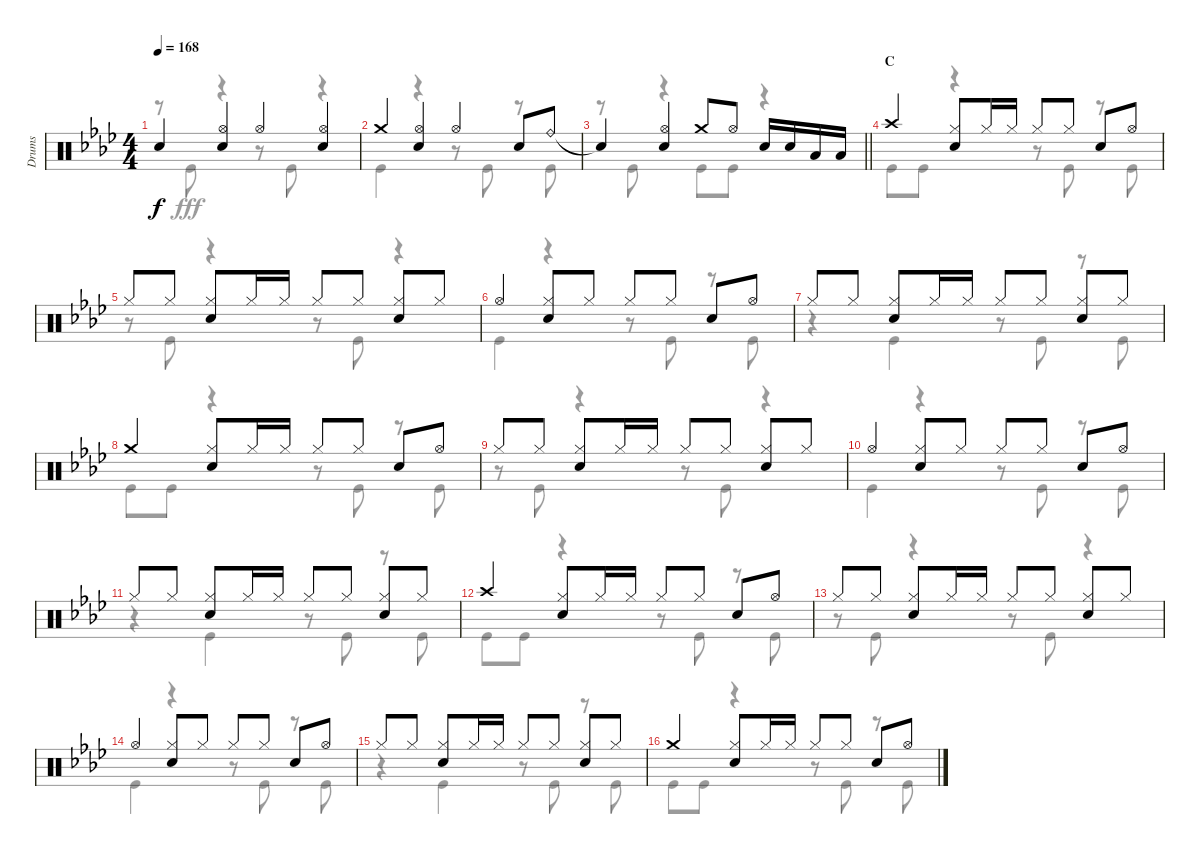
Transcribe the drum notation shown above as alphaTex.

\track ("Drums" "Drums") {instrument percussion}
\staff {score}
\articulation defaults
\voice
\ts (4 4)
\tempo 168
\clef neutral
\ks ab "Snare (hit)"{t}.4{dy f}
("Hi-Hat (open)" "Snare (hit) 2").4 "Hi-Hat (open)".4 ("Hi-Hat (open)" "Snare (hit) 2").4 |
"Crash medium (hit)".4 ("Hi-Hat (open)" "Snare (hit) 2").4 "Hi-Hat (open)".4 "Snare (hit) 2".8 "Ride (bell)".8 |
\barLineRight lightlight "Snare (hit)"{t}.4
("Hi-Hat (open)" "Snare (hit) 2").4 "Crash medium (hit)".8 "Hi-Hat (open)".8 "Snare (hit) 2".16 "Snare (hit) 2".16 "Low Tom (hit)".16 "Low Tom (hit)".16 |
\section ("" "C")
"Crash high (hit)".4 ("Hi-Hat (closed)" "Snare (hit) 2").8 "Hi-Hat (closed)".16 "Hi-Hat (closed)".16 "Hi-Hat (closed)".8 "Hi-Hat (closed)".8 "Snare (hit) 2".8 "Hi-Hat (open)".8 |
"Hi-Hat (closed)".8 "Hi-Hat (closed)".8 ("Hi-Hat (closed)" "Snare (hit) 2").8 "Hi-Hat (closed)".16 "Hi-Hat (closed)".16 "Hi-Hat (closed)".8 "Hi-Hat (closed)".8 ("Hi-Hat (closed)" "Snare (hit) 2").8 "Hi-Hat (closed)".8 |
"Hi-Hat (open)".4 ("Hi-Hat (closed)" "Snare (hit) 2").8 "Hi-Hat (closed)".8 "Hi-Hat (closed)".8 "Hi-Hat (closed)".8 "Snare (hit) 2".8 "Hi-Hat (open)".8 |
"Hi-Hat (closed)".8 "Hi-Hat (closed)".8 ("Hi-Hat (closed)" "Snare (hit) 2").8 "Hi-Hat (closed)".16 "Hi-Hat (closed)".16 "Hi-Hat (closed)".8 "Hi-Hat (closed)".8 ("Hi-Hat (closed)" "Snare (hit) 2").8 "Hi-Hat (closed)".8 |
"Crash medium (hit)".4 ("Hi-Hat (closed)" "Snare (hit) 2").8 "Hi-Hat (closed)".16 "Hi-Hat (closed)".16 "Hi-Hat (closed)".8 "Hi-Hat (closed)".8 "Snare (hit) 2".8 "Hi-Hat (open)".8 |
"Hi-Hat (closed)".8 "Hi-Hat (closed)".8 ("Hi-Hat (closed)" "Snare (hit) 2").8 "Hi-Hat (closed)".16 "Hi-Hat (closed)".16 "Hi-Hat (closed)".8 "Hi-Hat (closed)".8 ("Hi-Hat (closed)" "Snare (hit) 2").8 "Hi-Hat (closed)".8 |
"Hi-Hat (open)".4 ("Hi-Hat (closed)" "Snare (hit) 2").8 "Hi-Hat (closed)".8 "Hi-Hat (closed)".8 "Hi-Hat (closed)".8 "Snare (hit) 2".8 "Hi-Hat (open)".8 |
"Hi-Hat (closed)".8 "Hi-Hat (closed)".8 ("Hi-Hat (closed)" "Snare (hit) 2").8 "Hi-Hat (closed)".16 "Hi-Hat (closed)".16 "Hi-Hat (closed)".8 "Hi-Hat (closed)".8 ("Hi-Hat (closed)" "Snare (hit) 2").8 "Hi-Hat (closed)".8 |
"Crash high (hit)".4 ("Hi-Hat (closed)" "Snare (hit) 2").8 "Hi-Hat (closed)".16 "Hi-Hat (closed)".16 "Hi-Hat (closed)".8 "Hi-Hat (closed)".8 "Snare (hit) 2".8 "Hi-Hat (open)".8 |
"Hi-Hat (closed)".8 "Hi-Hat (closed)".8 ("Hi-Hat (closed)" "Snare (hit) 2").8 "Hi-Hat (closed)".16 "Hi-Hat (closed)".16 "Hi-Hat (closed)".8 "Hi-Hat (closed)".8 ("Hi-Hat (closed)" "Snare (hit) 2").8 "Hi-Hat (closed)".8 |
"Hi-Hat (open)".4 ("Hi-Hat (closed)" "Snare (hit) 2").8 "Hi-Hat (closed)".8 "Hi-Hat (closed)".8 "Hi-Hat (closed)".8 "Snare (hit) 2".8 "Hi-Hat (open)".8 |
"Hi-Hat (closed)".8 "Hi-Hat (closed)".8 ("Hi-Hat (closed)" "Snare (hit) 2").8 "Hi-Hat (closed)".16 "Hi-Hat (closed)".16 "Hi-Hat (closed)".8 "Hi-Hat (closed)".8 ("Hi-Hat (closed)" "Snare (hit) 2").8 "Hi-Hat (closed)".8 |
"Crash medium (hit)".4 ("Hi-Hat (closed)" "Snare (hit) 2").8 "Hi-Hat (closed)".16 "Hi-Hat (closed)".16 "Hi-Hat (closed)".8 "Hi-Hat (closed)".8 "Snare (hit) 2".8 "Hi-Hat (open)".8
\voice
\clef neutral
\ottava regular
\simile none
\ks ab
r.8{dy fff} "Kick (hit)".8 r.4 r.8 "Kick (hit)".8 r.4 |
"Kick (hit)".4 r.4 r.8 "Kick (hit)".8 r.8 "Kick (hit)".8 |
\barLineRight lightlight
r.8 "Kick (hit)".8 r.4 "Kick (hit)".8 "Kick (hit)".8 r.4 |
"Kick (hit)".8 "Kick (hit)".8 r.4 r.8 "Kick (hit)".8 r.8 "Kick (hit)".8 |
r.8 "Kick (hit)".8 r.4 r.8 "Kick (hit)".8 r.4 |
"Kick (hit)".4 r.4 r.8 "Kick (hit)".8 r.8 "Kick (hit)".8 |
r.4 "Kick (hit)".4 r.8 "Kick (hit)".8 r.8 "Kick (hit)".8 |
"Kick (hit)".8 "Kick (hit)".8 r.4 r.8 "Kick (hit)".8 r.8 "Kick (hit)".8 |
r.8 "Kick (hit)".8 r.4 r.8 "Kick (hit)".8 r.4 |
"Kick (hit)".4 r.4 r.8 "Kick (hit)".8 r.8 "Kick (hit)".8 |
r.4 "Kick (hit)".4 r.8 "Kick (hit)".8 r.8 "Kick (hit)".8 |
"Kick (hit)".8 "Kick (hit)".8 r.4 r.8 "Kick (hit)".8 r.8 "Kick (hit)".8 |
r.8 "Kick (hit)".8 r.4 r.8 "Kick (hit)".8 r.4 |
"Kick (hit)".4 r.4 r.8 "Kick (hit)".8 r.8 "Kick (hit)".8 |
r.4 "Kick (hit)".4 r.8 "Kick (hit)".8 r.8 "Kick (hit)".8 |
"Kick (hit)".8 "Kick (hit)".8 r.4 r.8 "Kick (hit)".8 r.8 "Kick (hit)".8
